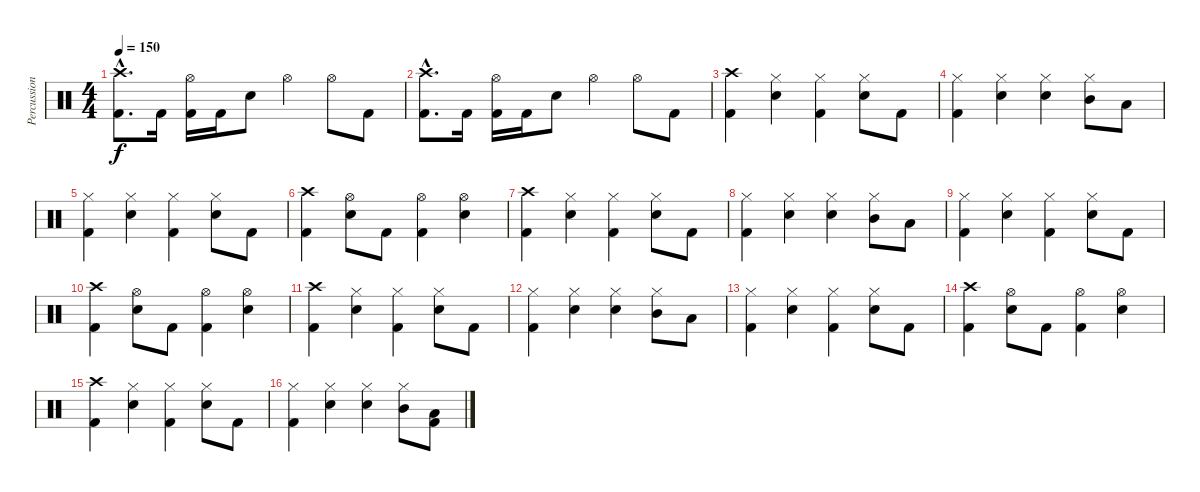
\track ("Percussion" "Percussion") {instrument percussion}
\staff {score}
\articulation defaults
\ts (4 4)
\tempo 150
\clef neutral
\ks c
("Crash high (hit)"{hac} "Kick (hit) 2"{hac}).8{d dy f} "Kick (hit) 2".16 ("Hi-Hat (open)" "Kick (hit) 2").16 "Kick (hit) 2".16 "Snare (hit) 2".8 "Hi-Hat (open)".4 "Hi-Hat (open)".8 "Kick (hit) 2".8 |
("Crash high (hit)"{hac} "Kick (hit) 2"{hac}).8{d} "Kick (hit) 2".16 ("Hi-Hat (open)" "Kick (hit) 2").16 "Kick (hit) 2".16 "Snare (hit) 2".8 "Hi-Hat (open)".4 "Hi-Hat (open)".8 "Kick (hit) 2".8 |
("Crash high (hit)" "Kick (hit) 2").4 ("Hi-Hat (closed)" "Snare (hit) 2").4 ("Hi-Hat (closed)" "Kick (hit) 2").4 ("Hi-Hat (closed)" "Snare (hit) 2").8 "Kick (hit) 2".8 |
("Hi-Hat (closed)" "Kick (hit) 2").4 ("Hi-Hat (closed)" "Snare (hit) 2").4 ("Hi-Hat (closed)" "Snare (hit) 2").4 ("Hi-Hat (closed)" "Mid Tom (hit)").8 "Low Floor Tom (hit)".8 |
("Hi-Hat (closed)" "Kick (hit) 2").4 ("Hi-Hat (closed)" "Snare (hit) 2").4 ("Hi-Hat (closed)" "Kick (hit) 2").4 ("Hi-Hat (closed)" "Snare (hit) 2").8 "Kick (hit) 2".8 |
("Crash high (hit)" "Kick (hit) 2").4 ("Hi-Hat (open)" "Snare (hit) 2").8 "Kick (hit) 2".8 ("Hi-Hat (open)" "Kick (hit) 2").4 ("Hi-Hat (open)" "Snare (hit) 2").4 |
("Crash high (hit)" "Kick (hit) 2").4 ("Hi-Hat (closed)" "Snare (hit) 2").4 ("Hi-Hat (closed)" "Kick (hit) 2").4 ("Hi-Hat (closed)" "Snare (hit) 2").8 "Kick (hit) 2".8 |
("Hi-Hat (closed)" "Kick (hit) 2").4 ("Hi-Hat (closed)" "Snare (hit) 2").4 ("Hi-Hat (closed)" "Snare (hit) 2").4 ("Hi-Hat (closed)" "Mid Tom (hit)").8 "Low Floor Tom (hit)".8 |
("Hi-Hat (closed)" "Kick (hit) 2").4 ("Hi-Hat (closed)" "Snare (hit) 2").4 ("Hi-Hat (closed)" "Kick (hit) 2").4 ("Hi-Hat (closed)" "Snare (hit) 2").8 "Kick (hit) 2".8 |
("Crash high (hit)" "Kick (hit) 2").4 ("Hi-Hat (open)" "Snare (hit) 2").8 "Kick (hit) 2".8 ("Hi-Hat (open)" "Kick (hit) 2").4 ("Hi-Hat (open)" "Snare (hit) 2").4 |
("Crash high (hit)" "Kick (hit) 2").4 ("Hi-Hat (closed)" "Snare (hit) 2").4 ("Hi-Hat (closed)" "Kick (hit) 2").4 ("Hi-Hat (closed)" "Snare (hit) 2").8 "Kick (hit) 2".8 |
("Hi-Hat (closed)" "Kick (hit) 2").4 ("Hi-Hat (closed)" "Snare (hit) 2").4 ("Hi-Hat (closed)" "Snare (hit) 2").4 ("Hi-Hat (closed)" "Mid Tom (hit)").8 "Low Floor Tom (hit)".8 |
("Hi-Hat (closed)" "Kick (hit) 2").4 ("Hi-Hat (closed)" "Snare (hit) 2").4 ("Hi-Hat (closed)" "Kick (hit) 2").4 ("Hi-Hat (closed)" "Snare (hit) 2").8 "Kick (hit) 2".8 |
("Crash high (hit)" "Kick (hit) 2").4 ("Hi-Hat (open)" "Snare (hit) 2").8 "Kick (hit) 2".8 ("Hi-Hat (open)" "Kick (hit) 2").4 ("Hi-Hat (open)" "Snare (hit) 2").4 |
("Crash high (hit)" "Kick (hit) 2").4 ("Hi-Hat (closed)" "Snare (hit) 2").4 ("Hi-Hat (closed)" "Kick (hit) 2").4 ("Hi-Hat (closed)" "Snare (hit) 2").8 "Kick (hit) 2".8 |
("Hi-Hat (closed)" "Kick (hit) 2").4 ("Hi-Hat (closed)" "Snare (hit) 2").4 ("Hi-Hat (closed)" "Snare (hit) 2").4 ("Hi-Hat (closed)" "Mid Tom (hit)").8 ("Low Floor Tom (hit)" "Kick (hit) 2").8
